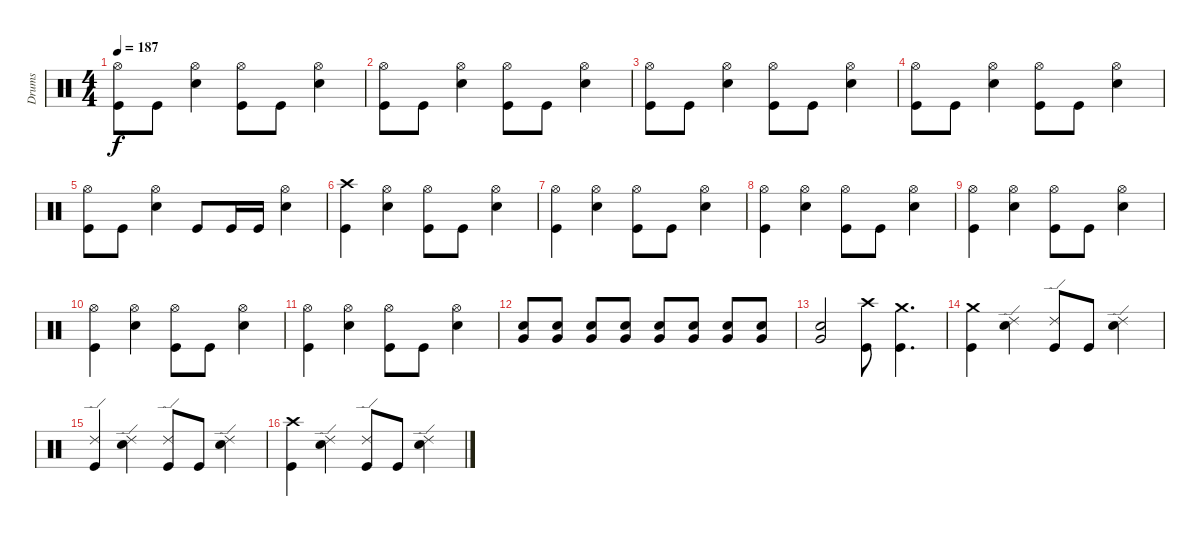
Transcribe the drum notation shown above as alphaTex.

\track ("Drums" "Drums") {instrument percussion}
\staff {score}
\articulation defaults
\ts (4 4)
\tempo 187
\clef neutral
\ks c
("Hi-Hat (open)" "Kick (hit)").8{dy f} "Kick (hit)".8 ("Hi-Hat (open)" "Snare (hit) 2").4 ("Hi-Hat (open)" "Kick (hit)").8 "Kick (hit)".8 ("Hi-Hat (open)" "Snare (hit) 2").4 |
("Hi-Hat (open)" "Kick (hit)").8 "Kick (hit)".8 ("Hi-Hat (open)" "Snare (hit) 2").4 ("Hi-Hat (open)" "Kick (hit)").8 "Kick (hit)".8 ("Hi-Hat (open)" "Snare (hit) 2").4 |
("Hi-Hat (open)" "Kick (hit)").8 "Kick (hit)".8 ("Hi-Hat (open)" "Snare (hit) 2").4 ("Hi-Hat (open)" "Kick (hit)").8 "Kick (hit)".8 ("Hi-Hat (open)" "Snare (hit) 2").4 |
("Hi-Hat (open)" "Kick (hit)").8 "Kick (hit)".8 ("Hi-Hat (open)" "Snare (hit) 2").4 ("Hi-Hat (open)" "Kick (hit)").8 "Kick (hit)".8 ("Hi-Hat (open)" "Snare (hit) 2").4 |
("Hi-Hat (open)" "Kick (hit)").8 "Kick (hit)".8 ("Hi-Hat (open)" "Snare (hit) 2").4 "Kick (hit)".8 "Kick (hit)".16 "Kick (hit)".16 ("Hi-Hat (open)" "Snare (hit) 2").4 |
("Crash high (hit)" "Kick (hit)").4 ("Hi-Hat (open)" "Snare (hit) 2").4 ("Hi-Hat (open)" "Kick (hit)").8 "Kick (hit)".8 ("Hi-Hat (open)" "Snare (hit) 2").4 |
("Hi-Hat (open)" "Kick (hit)").4 ("Hi-Hat (open)" "Snare (hit) 2").4 ("Hi-Hat (open)" "Kick (hit)").8 "Kick (hit)".8 ("Hi-Hat (open)" "Snare (hit) 2").4 |
("Hi-Hat (open)" "Kick (hit)").4 ("Hi-Hat (open)" "Snare (hit) 2").4 ("Hi-Hat (open)" "Kick (hit)").8 "Kick (hit)".8 ("Hi-Hat (open)" "Snare (hit) 2").4 |
("Hi-Hat (open)" "Kick (hit)").4 ("Hi-Hat (open)" "Snare (hit) 2").4 ("Hi-Hat (open)" "Kick (hit)").8 "Kick (hit)".8 ("Hi-Hat (open)" "Snare (hit) 2").4 |
("Hi-Hat (open)" "Kick (hit)").4 ("Hi-Hat (open)" "Snare (hit) 2").4 ("Hi-Hat (open)" "Kick (hit)").8 "Kick (hit)".8 ("Hi-Hat (open)" "Snare (hit) 2").4 |
("Hi-Hat (open)" "Kick (hit)").4 ("Hi-Hat (open)" "Snare (hit) 2").4 ("Hi-Hat (open)" "Kick (hit)").8 "Kick (hit)".8 ("Hi-Hat (open)" "Snare (hit) 2").4 |
("Snare (hit) 2" "Very Low Tom (hit)").8{volume 8} ("Snare (hit) 2" "Very Low Tom (hit)").8{volume 13} ("Snare (hit) 2" "Very Low Tom (hit)").8 ("Snare (hit) 2" "Very Low Tom (hit)").8 ("Snare (hit) 2" "Very Low Tom (hit)").8 ("Snare (hit) 2" "Very Low Tom (hit)").8 ("Snare (hit) 2" "Very Low Tom (hit)").8 ("Snare (hit) 2" "Very Low Tom (hit)").8 |
("Snare (hit) 2" "Very Low Tom (hit)").2 ("Crash high (hit)" "Kick (hit)").8 ("Crash medium (hit)" "Kick (hit)").4{d} |
("Crash medium (hit)" "Kick (hit)").4 ("Ride (edge) 2" "Snare (hit) 2").4 ("Ride (edge) 2" "Kick (hit)").8 "Kick (hit)".8 ("Ride (edge) 2" "Snare (hit) 2").4 |
("Ride (edge) 2" "Kick (hit)").4 ("Ride (edge) 2" "Snare (hit) 2").4 ("Ride (edge) 2" "Kick (hit)").8 "Kick (hit)".8 ("Ride (edge) 2" "Snare (hit) 2").4 |
("Crash high (hit)" "Kick (hit)").4 ("Ride (edge) 2" "Snare (hit) 2").4 ("Ride (edge) 2" "Kick (hit)").8 "Kick (hit)".8 ("Ride (edge) 2" "Snare (hit) 2").4
